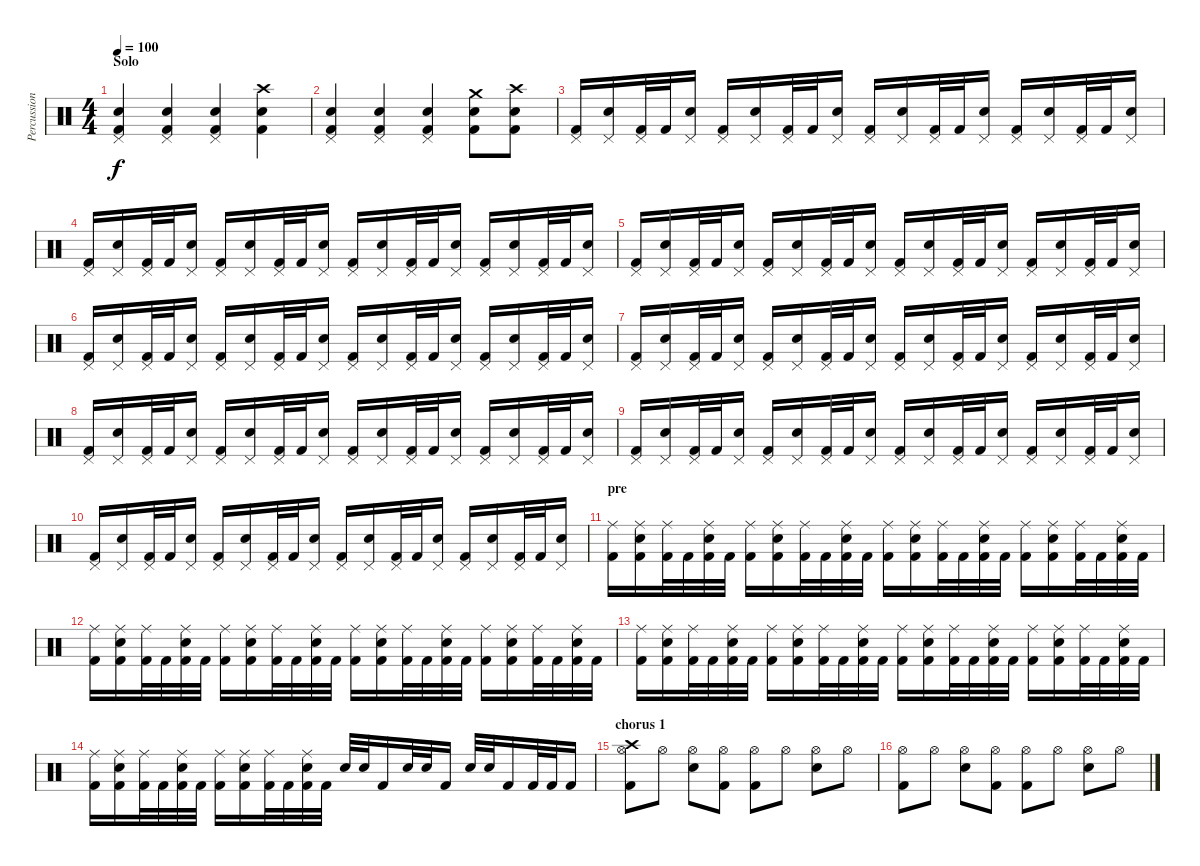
\track ("Percussion" "Percussion") {instrument percussion}
\staff {score}
\articulation defaults
\ts (4 4)
\section ("" "Solo")
\tempo 100
\clef neutral
\ks c
("Pedal Hi-Hat (hit)" "Electric Snare (hit)" "Kick (hit) 2").4{dy f} ("Pedal Hi-Hat (hit)" "Electric Snare (hit)" "Kick (hit) 2").4 ("Pedal Hi-Hat (hit)" "Electric Snare (hit)" "Kick (hit) 2").4 ("Crash high (hit)" "Electric Snare (hit)" "Kick (hit) 2").4 |
("Pedal Hi-Hat (hit)" "Electric Snare (hit)" "Kick (hit) 2").4 ("Pedal Hi-Hat (hit)" "Electric Snare (hit)" "Kick (hit) 2").4 ("Pedal Hi-Hat (hit)" "Electric Snare (hit)" "Kick (hit) 2").4 ("Crash medium (hit)" "Electric Snare (hit)" "Kick (hit) 2").8 ("Crash high (hit)" "Electric Snare (hit)" "Kick (hit) 2").8 |
("Pedal Hi-Hat (hit)" "Kick (hit) 2").16 ("Pedal Hi-Hat (hit)" "Electric Snare (hit)").16 ("Pedal Hi-Hat (hit)" "Kick (hit) 2").32 "Kick (hit) 2".32 ("Pedal Hi-Hat (hit)" "Electric Snare (hit)").16 ("Pedal Hi-Hat (hit)" "Kick (hit) 2").16 ("Pedal Hi-Hat (hit)" "Electric Snare (hit)").16 ("Pedal Hi-Hat (hit)" "Kick (hit) 2").32 "Kick (hit) 2".32 ("Pedal Hi-Hat (hit)" "Electric Snare (hit)").16 ("Pedal Hi-Hat (hit)" "Kick (hit) 2").16 ("Pedal Hi-Hat (hit)" "Electric Snare (hit)").16 ("Pedal Hi-Hat (hit)" "Kick (hit) 2").32 "Kick (hit) 2".32 ("Pedal Hi-Hat (hit)" "Electric Snare (hit)").16 ("Pedal Hi-Hat (hit)" "Kick (hit) 2").16 ("Pedal Hi-Hat (hit)" "Electric Snare (hit)").16 ("Pedal Hi-Hat (hit)" "Kick (hit) 2").32 "Kick (hit) 2".32 ("Pedal Hi-Hat (hit)" "Electric Snare (hit)").16 |
("Pedal Hi-Hat (hit)" "Kick (hit) 2").16 ("Pedal Hi-Hat (hit)" "Electric Snare (hit)").16 ("Pedal Hi-Hat (hit)" "Kick (hit) 2").32 "Kick (hit) 2".32 ("Pedal Hi-Hat (hit)" "Electric Snare (hit)").16 ("Pedal Hi-Hat (hit)" "Kick (hit) 2").16 ("Pedal Hi-Hat (hit)" "Electric Snare (hit)").16 ("Pedal Hi-Hat (hit)" "Kick (hit) 2").32 "Kick (hit) 2".32 ("Pedal Hi-Hat (hit)" "Electric Snare (hit)").16 ("Pedal Hi-Hat (hit)" "Kick (hit) 2").16 ("Pedal Hi-Hat (hit)" "Electric Snare (hit)").16 ("Pedal Hi-Hat (hit)" "Kick (hit) 2").32 "Kick (hit) 2".32 ("Pedal Hi-Hat (hit)" "Electric Snare (hit)").16 ("Pedal Hi-Hat (hit)" "Kick (hit) 2").16 ("Pedal Hi-Hat (hit)" "Electric Snare (hit)").16 ("Pedal Hi-Hat (hit)" "Kick (hit) 2").32 "Kick (hit) 2".32 ("Pedal Hi-Hat (hit)" "Electric Snare (hit)").16 |
("Pedal Hi-Hat (hit)" "Kick (hit) 2").16 ("Pedal Hi-Hat (hit)" "Electric Snare (hit)").16 ("Pedal Hi-Hat (hit)" "Kick (hit) 2").32 "Kick (hit) 2".32 ("Pedal Hi-Hat (hit)" "Electric Snare (hit)").16 ("Pedal Hi-Hat (hit)" "Kick (hit) 2").16 ("Pedal Hi-Hat (hit)" "Electric Snare (hit)").16 ("Pedal Hi-Hat (hit)" "Kick (hit) 2").32 "Kick (hit) 2".32 ("Pedal Hi-Hat (hit)" "Electric Snare (hit)").16 ("Pedal Hi-Hat (hit)" "Kick (hit) 2").16 ("Pedal Hi-Hat (hit)" "Electric Snare (hit)").16 ("Pedal Hi-Hat (hit)" "Kick (hit) 2").32 "Kick (hit) 2".32 ("Pedal Hi-Hat (hit)" "Electric Snare (hit)").16 ("Pedal Hi-Hat (hit)" "Kick (hit) 2").16 ("Pedal Hi-Hat (hit)" "Electric Snare (hit)").16 ("Pedal Hi-Hat (hit)" "Kick (hit) 2").32 "Kick (hit) 2".32 ("Pedal Hi-Hat (hit)" "Electric Snare (hit)").16 |
("Pedal Hi-Hat (hit)" "Kick (hit) 2").16 ("Pedal Hi-Hat (hit)" "Electric Snare (hit)").16 ("Pedal Hi-Hat (hit)" "Kick (hit) 2").32 "Kick (hit) 2".32 ("Pedal Hi-Hat (hit)" "Electric Snare (hit)").16 ("Pedal Hi-Hat (hit)" "Kick (hit) 2").16 ("Pedal Hi-Hat (hit)" "Electric Snare (hit)").16 ("Pedal Hi-Hat (hit)" "Kick (hit) 2").32 "Kick (hit) 2".32 ("Pedal Hi-Hat (hit)" "Electric Snare (hit)").16 ("Pedal Hi-Hat (hit)" "Kick (hit) 2").16 ("Pedal Hi-Hat (hit)" "Electric Snare (hit)").16 ("Pedal Hi-Hat (hit)" "Kick (hit) 2").32 "Kick (hit) 2".32 ("Pedal Hi-Hat (hit)" "Electric Snare (hit)").16 ("Pedal Hi-Hat (hit)" "Kick (hit) 2").16 ("Pedal Hi-Hat (hit)" "Electric Snare (hit)").16 ("Pedal Hi-Hat (hit)" "Kick (hit) 2").32 "Kick (hit) 2".32 ("Pedal Hi-Hat (hit)" "Electric Snare (hit)").16 |
("Pedal Hi-Hat (hit)" "Kick (hit) 2").16 ("Pedal Hi-Hat (hit)" "Electric Snare (hit)").16 ("Pedal Hi-Hat (hit)" "Kick (hit) 2").32 "Kick (hit) 2".32 ("Pedal Hi-Hat (hit)" "Electric Snare (hit)").16 ("Pedal Hi-Hat (hit)" "Kick (hit) 2").16 ("Pedal Hi-Hat (hit)" "Electric Snare (hit)").16 ("Pedal Hi-Hat (hit)" "Kick (hit) 2").32 "Kick (hit) 2".32 ("Pedal Hi-Hat (hit)" "Electric Snare (hit)").16 ("Pedal Hi-Hat (hit)" "Kick (hit) 2").16 ("Pedal Hi-Hat (hit)" "Electric Snare (hit)").16 ("Pedal Hi-Hat (hit)" "Kick (hit) 2").32 "Kick (hit) 2".32 ("Pedal Hi-Hat (hit)" "Electric Snare (hit)").16 ("Pedal Hi-Hat (hit)" "Kick (hit) 2").16 ("Pedal Hi-Hat (hit)" "Electric Snare (hit)").16 ("Pedal Hi-Hat (hit)" "Kick (hit) 2").32 "Kick (hit) 2".32 ("Pedal Hi-Hat (hit)" "Electric Snare (hit)").16 |
("Pedal Hi-Hat (hit)" "Kick (hit) 2").16 ("Pedal Hi-Hat (hit)" "Electric Snare (hit)").16 ("Pedal Hi-Hat (hit)" "Kick (hit) 2").32 "Kick (hit) 2".32 ("Pedal Hi-Hat (hit)" "Electric Snare (hit)").16 ("Pedal Hi-Hat (hit)" "Kick (hit) 2").16 ("Pedal Hi-Hat (hit)" "Electric Snare (hit)").16 ("Pedal Hi-Hat (hit)" "Kick (hit) 2").32 "Kick (hit) 2".32 ("Pedal Hi-Hat (hit)" "Electric Snare (hit)").16 ("Pedal Hi-Hat (hit)" "Kick (hit) 2").16 ("Pedal Hi-Hat (hit)" "Electric Snare (hit)").16 ("Pedal Hi-Hat (hit)" "Kick (hit) 2").32 "Kick (hit) 2".32 ("Pedal Hi-Hat (hit)" "Electric Snare (hit)").16 ("Pedal Hi-Hat (hit)" "Kick (hit) 2").16 ("Pedal Hi-Hat (hit)" "Electric Snare (hit)").16 ("Pedal Hi-Hat (hit)" "Kick (hit) 2").32 "Kick (hit) 2".32 ("Pedal Hi-Hat (hit)" "Electric Snare (hit)").16 |
("Pedal Hi-Hat (hit)" "Kick (hit) 2").16 ("Pedal Hi-Hat (hit)" "Electric Snare (hit)").16 ("Pedal Hi-Hat (hit)" "Kick (hit) 2").32 "Kick (hit) 2".32 ("Pedal Hi-Hat (hit)" "Electric Snare (hit)").16 ("Pedal Hi-Hat (hit)" "Kick (hit) 2").16 ("Pedal Hi-Hat (hit)" "Electric Snare (hit)").16 ("Pedal Hi-Hat (hit)" "Kick (hit) 2").32 "Kick (hit) 2".32 ("Pedal Hi-Hat (hit)" "Electric Snare (hit)").16 ("Pedal Hi-Hat (hit)" "Kick (hit) 2").16 ("Pedal Hi-Hat (hit)" "Electric Snare (hit)").16 ("Pedal Hi-Hat (hit)" "Kick (hit) 2").32 "Kick (hit) 2".32 ("Pedal Hi-Hat (hit)" "Electric Snare (hit)").16 ("Pedal Hi-Hat (hit)" "Kick (hit) 2").16 ("Pedal Hi-Hat (hit)" "Electric Snare (hit)").16 ("Pedal Hi-Hat (hit)" "Kick (hit) 2").32 "Kick (hit) 2".32 ("Pedal Hi-Hat (hit)" "Electric Snare (hit)").16 |
("Pedal Hi-Hat (hit)" "Kick (hit) 2").16 ("Pedal Hi-Hat (hit)" "Electric Snare (hit)").16 ("Pedal Hi-Hat (hit)" "Kick (hit) 2").32 "Kick (hit) 2".32 ("Pedal Hi-Hat (hit)" "Electric Snare (hit)").16 ("Pedal Hi-Hat (hit)" "Kick (hit) 2").16 ("Pedal Hi-Hat (hit)" "Electric Snare (hit)").16 ("Pedal Hi-Hat (hit)" "Kick (hit) 2").32 "Kick (hit) 2".32 ("Pedal Hi-Hat (hit)" "Electric Snare (hit)").16 ("Pedal Hi-Hat (hit)" "Kick (hit) 2").16 ("Pedal Hi-Hat (hit)" "Electric Snare (hit)").16 ("Pedal Hi-Hat (hit)" "Kick (hit) 2").32 "Kick (hit) 2".32 ("Pedal Hi-Hat (hit)" "Electric Snare (hit)").16 ("Pedal Hi-Hat (hit)" "Kick (hit) 2").16 ("Pedal Hi-Hat (hit)" "Electric Snare (hit)").16 ("Pedal Hi-Hat (hit)" "Kick (hit) 2").32 "Kick (hit) 2".32 ("Pedal Hi-Hat (hit)" "Electric Snare (hit)").16 |
\section ("" "pre")
("Ride (middle)" "Kick (hit) 2").16 ("Ride (middle)" "Electric Snare (hit)" "Kick (hit) 2").16 ("Ride (middle)" "Kick (hit) 2").32 "Kick (hit) 2".32 ("Ride (middle)" "Electric Snare (hit)" "Kick (hit) 2").32 "Kick (hit) 2".32 ("Ride (middle)" "Kick (hit) 2").16 ("Ride (middle)" "Electric Snare (hit)" "Kick (hit) 2").16 ("Ride (middle)" "Kick (hit) 2").32 "Kick (hit) 2".32 ("Ride (middle)" "Electric Snare (hit)" "Kick (hit) 2").32 "Kick (hit) 2".32 ("Ride (middle)" "Kick (hit) 2").16 ("Ride (middle)" "Electric Snare (hit)" "Kick (hit) 2").16 ("Ride (middle)" "Kick (hit) 2").32 "Kick (hit) 2".32 ("Ride (middle)" "Electric Snare (hit)" "Kick (hit) 2").32 "Kick (hit) 2".32 ("Ride (middle)" "Kick (hit) 2").16 ("Ride (middle)" "Electric Snare (hit)" "Kick (hit) 2").16 ("Ride (middle)" "Kick (hit) 2").32 "Kick (hit) 2".32 ("Ride (middle)" "Electric Snare (hit)" "Kick (hit) 2").32 "Kick (hit) 2".32 |
("Ride (middle)" "Kick (hit) 2").16 ("Ride (middle)" "Electric Snare (hit)" "Kick (hit) 2").16 ("Ride (middle)" "Kick (hit) 2").32 "Kick (hit) 2".32 ("Ride (middle)" "Electric Snare (hit)" "Kick (hit) 2").32 "Kick (hit) 2".32 ("Ride (middle)" "Kick (hit) 2").16 ("Ride (middle)" "Electric Snare (hit)" "Kick (hit) 2").16 ("Ride (middle)" "Kick (hit) 2").32 "Kick (hit) 2".32 ("Ride (middle)" "Electric Snare (hit)" "Kick (hit) 2").32 "Kick (hit) 2".32 ("Ride (middle)" "Kick (hit) 2").16 ("Ride (middle)" "Electric Snare (hit)" "Kick (hit) 2").16 ("Ride (middle)" "Kick (hit) 2").32 "Kick (hit) 2".32 ("Ride (middle)" "Electric Snare (hit)" "Kick (hit) 2").32 "Kick (hit) 2".32 ("Ride (middle)" "Kick (hit) 2").16 ("Ride (middle)" "Electric Snare (hit)" "Kick (hit) 2").16 ("Ride (middle)" "Kick (hit) 2").32 "Kick (hit) 2".32 ("Ride (middle)" "Electric Snare (hit)" "Kick (hit) 2").32 "Kick (hit) 2".32 |
("Ride (middle)" "Kick (hit) 2").16 ("Ride (middle)" "Electric Snare (hit)" "Kick (hit) 2").16 ("Ride (middle)" "Kick (hit) 2").32 "Kick (hit) 2".32 ("Ride (middle)" "Electric Snare (hit)" "Kick (hit) 2").32 "Kick (hit) 2".32 ("Ride (middle)" "Kick (hit) 2").16 ("Ride (middle)" "Electric Snare (hit)" "Kick (hit) 2").16 ("Ride (middle)" "Kick (hit) 2").32 "Kick (hit) 2".32 ("Ride (middle)" "Electric Snare (hit)" "Kick (hit) 2").32 "Kick (hit) 2".32 ("Ride (middle)" "Kick (hit) 2").16 ("Ride (middle)" "Electric Snare (hit)" "Kick (hit) 2").16 ("Ride (middle)" "Kick (hit) 2").32 "Kick (hit) 2".32 ("Ride (middle)" "Electric Snare (hit)" "Kick (hit) 2").32 "Kick (hit) 2".32 ("Ride (middle)" "Kick (hit) 2").16 ("Ride (middle)" "Electric Snare (hit)" "Kick (hit) 2").16 ("Ride (middle)" "Kick (hit) 2").32 "Kick (hit) 2".32 ("Ride (middle)" "Electric Snare (hit)" "Kick (hit) 2").32 "Kick (hit) 2".32 |
("Ride (middle)" "Kick (hit) 2").16 ("Ride (middle)" "Electric Snare (hit)" "Kick (hit) 2").16 ("Ride (middle)" "Kick (hit) 2").32 "Kick (hit) 2".32 ("Ride (middle)" "Electric Snare (hit)" "Kick (hit) 2").32 "Kick (hit) 2".32 ("Ride (middle)" "Kick (hit) 2").16 ("Ride (middle)" "Electric Snare (hit)" "Kick (hit) 2").16 ("Ride (middle)" "Kick (hit) 2").32 "Kick (hit) 2".32 ("Ride (middle)" "Electric Snare (hit)" "Kick (hit) 2").32 "Kick (hit) 2".32 "Electric Snare (hit)".32 "Electric Snare (hit)".32 "Kick (hit) 2".16 "Electric Snare (hit)".32 "Electric Snare (hit)".32 "Kick (hit) 2".16 "Electric Snare (hit)".32 "Electric Snare (hit)".32 "Kick (hit) 2".16 "Kick (hit) 2".32 "Kick (hit) 2".32 "Kick (hit) 2".16 |
\section ("" "chorus 1")
("Crash high (hit)" "Hi-Hat (open)" "Kick (hit) 2").8 "Hi-Hat (open)".8 ("Hi-Hat (open)" "Electric Snare (hit)").8 ("Hi-Hat (open)" "Kick (hit) 2").8 ("Hi-Hat (open)" "Kick (hit) 2").8 "Hi-Hat (open)".8 ("Hi-Hat (open)" "Electric Snare (hit)").8 "Hi-Hat (open)".8 |
("Hi-Hat (open)" "Kick (hit) 2").8 "Hi-Hat (open)".8 ("Hi-Hat (open)" "Electric Snare (hit)").8 ("Hi-Hat (open)" "Kick (hit) 2").8 ("Hi-Hat (open)" "Kick (hit) 2").8 "Hi-Hat (open)".8 ("Hi-Hat (open)" "Electric Snare (hit)").8 "Hi-Hat (open)".8
